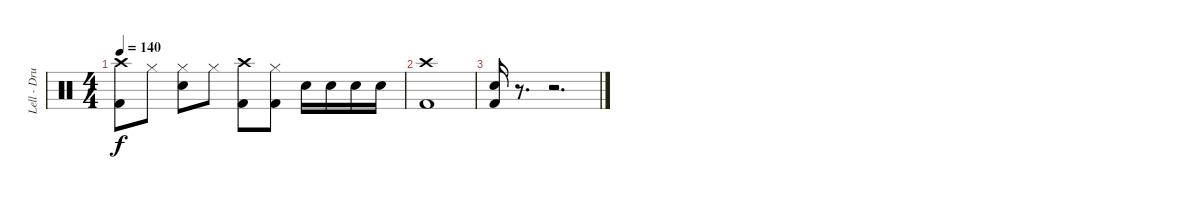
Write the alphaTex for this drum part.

\track ("Lell - Drums" "Lell - Dru") {instrument percussion}
\staff {score}
\articulation defaults
\ts (4 4)
\tempo 140
\clef neutral
\ks c
("Crash high (hit)" "Kick (hit) 2").8{dy f} "Hi-Hat (closed)".8 ("Hi-Hat (closed)" "Snare (hit) 2").8 "Hi-Hat (closed)".8 ("Crash high (hit)" "Kick (hit) 2").8 ("Hi-Hat (closed)" "Kick (hit) 2").8 "Snare (hit) 2".16 "Snare (hit) 2".16 "Snare (hit) 2".16 "Snare (hit) 2".16 |
("Crash high (hit)" "Kick (hit) 2").1 |
("Snare (hit) 2" "Kick (hit) 2").16 r.8{d} r.2{d}
